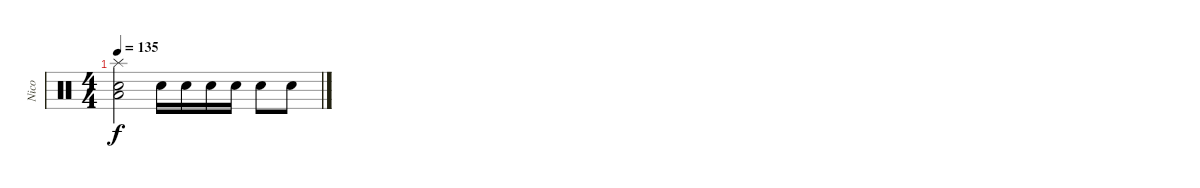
\track ("Nico" "Nico") {instrument percussion}
\staff {score}
\articulation defaults
\ts (4 4)
\tempo 135
\clef neutral
\ks c
("Snare (hit) 2" "Low Floor Tom (hit)" "Splash (hit)").2{dy f} "Electric Snare (hit)".16 "Electric Snare (hit)".16 "Electric Snare (hit)".16 "Electric Snare (hit)".16 "Electric Snare (hit)".8 "Electric Snare (hit)".8
